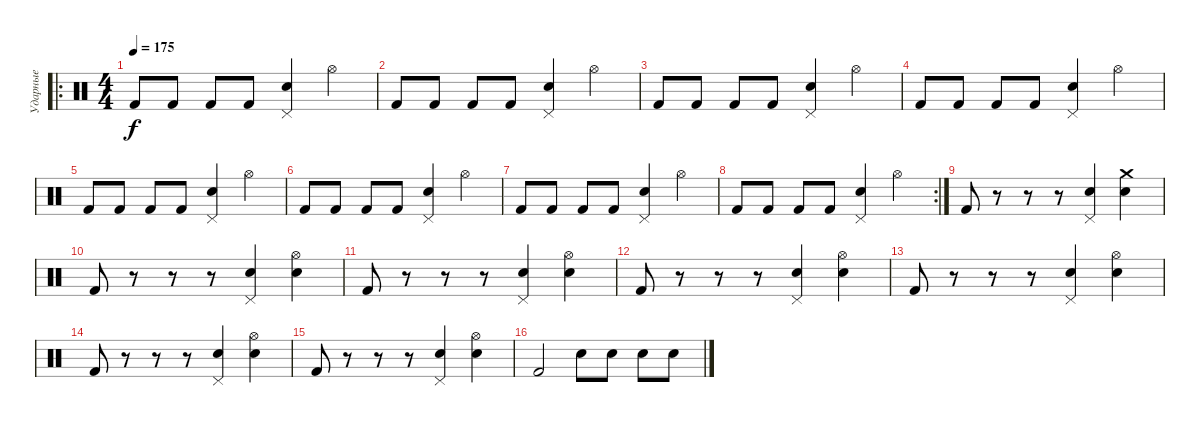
\track ("Ударные" "Ударные") {instrument percussion}
\staff {score}
\articulation defaults
\ro
\ts (4 4)
\tempo 175
\clef neutral
\ks c "Kick (hit) 2".8{dy f} "Kick (hit) 2".8 "Kick (hit) 2".8 "Kick (hit) 2".8
("Pedal Hi-Hat (hit)" "Electric Snare (hit)").4 "Hi-Hat (open)".4 |
"Kick (hit) 2".8 "Kick (hit) 2".8 "Kick (hit) 2".8 "Kick (hit) 2".8 ("Pedal Hi-Hat (hit)" "Electric Snare (hit)").4 "Hi-Hat (open)".4 |
"Kick (hit) 2".8 "Kick (hit) 2".8 "Kick (hit) 2".8 "Kick (hit) 2".8 ("Pedal Hi-Hat (hit)" "Electric Snare (hit)").4 "Hi-Hat (open)".4 |
"Kick (hit) 2".8 "Kick (hit) 2".8 "Kick (hit) 2".8 "Kick (hit) 2".8 ("Pedal Hi-Hat (hit)" "Electric Snare (hit)").4 "Hi-Hat (open)".4 |
"Kick (hit) 2".8 "Kick (hit) 2".8 "Kick (hit) 2".8 "Kick (hit) 2".8 ("Pedal Hi-Hat (hit)" "Electric Snare (hit)").4 "Hi-Hat (open)".4 |
"Kick (hit) 2".8 "Kick (hit) 2".8 "Kick (hit) 2".8 "Kick (hit) 2".8 ("Pedal Hi-Hat (hit)" "Electric Snare (hit)").4 "Hi-Hat (open)".4 |
"Kick (hit) 2".8 "Kick (hit) 2".8 "Kick (hit) 2".8 "Kick (hit) 2".8 ("Pedal Hi-Hat (hit)" "Electric Snare (hit)").4 "Hi-Hat (open)".4 |
\rc 2 "Kick (hit) 2".8 "Kick (hit) 2".8 "Kick (hit) 2".8 "Kick (hit) 2".8
("Pedal Hi-Hat (hit)" "Electric Snare (hit)").4 "Hi-Hat (open)".4 |
"Kick (hit) 2".8 r.8 r.8 r.8 ("Pedal Hi-Hat (hit)" "Electric Snare (hit)").4 ("Crash medium (hit)" "Electric Snare (hit)").4 |
"Kick (hit) 2".8 r.8 r.8 r.8 ("Pedal Hi-Hat (hit)" "Electric Snare (hit)").4 ("Electric Snare (hit)" "Hi-Hat (open)").4 |
"Kick (hit) 2".8 r.8 r.8 r.8 ("Pedal Hi-Hat (hit)" "Electric Snare (hit)").4 ("Electric Snare (hit)" "Hi-Hat (open)").4 |
"Kick (hit) 2".8 r.8 r.8 r.8 ("Pedal Hi-Hat (hit)" "Electric Snare (hit)").4 ("Electric Snare (hit)" "Hi-Hat (open)").4 |
"Kick (hit) 2".8 r.8 r.8 r.8 ("Pedal Hi-Hat (hit)" "Electric Snare (hit)").4 ("Electric Snare (hit)" "Hi-Hat (open)").4 |
"Kick (hit) 2".8 r.8 r.8 r.8 ("Pedal Hi-Hat (hit)" "Electric Snare (hit)").4 ("Electric Snare (hit)" "Hi-Hat (open)").4 |
"Kick (hit) 2".8 r.8 r.8 r.8 ("Pedal Hi-Hat (hit)" "Electric Snare (hit)").4 ("Electric Snare (hit)" "Hi-Hat (open)").4 |
"Kick (hit) 2".2 "Electric Snare (hit)".8 "Electric Snare (hit)".8 "Snare (hit) 2".8 "Snare (hit) 2".8
